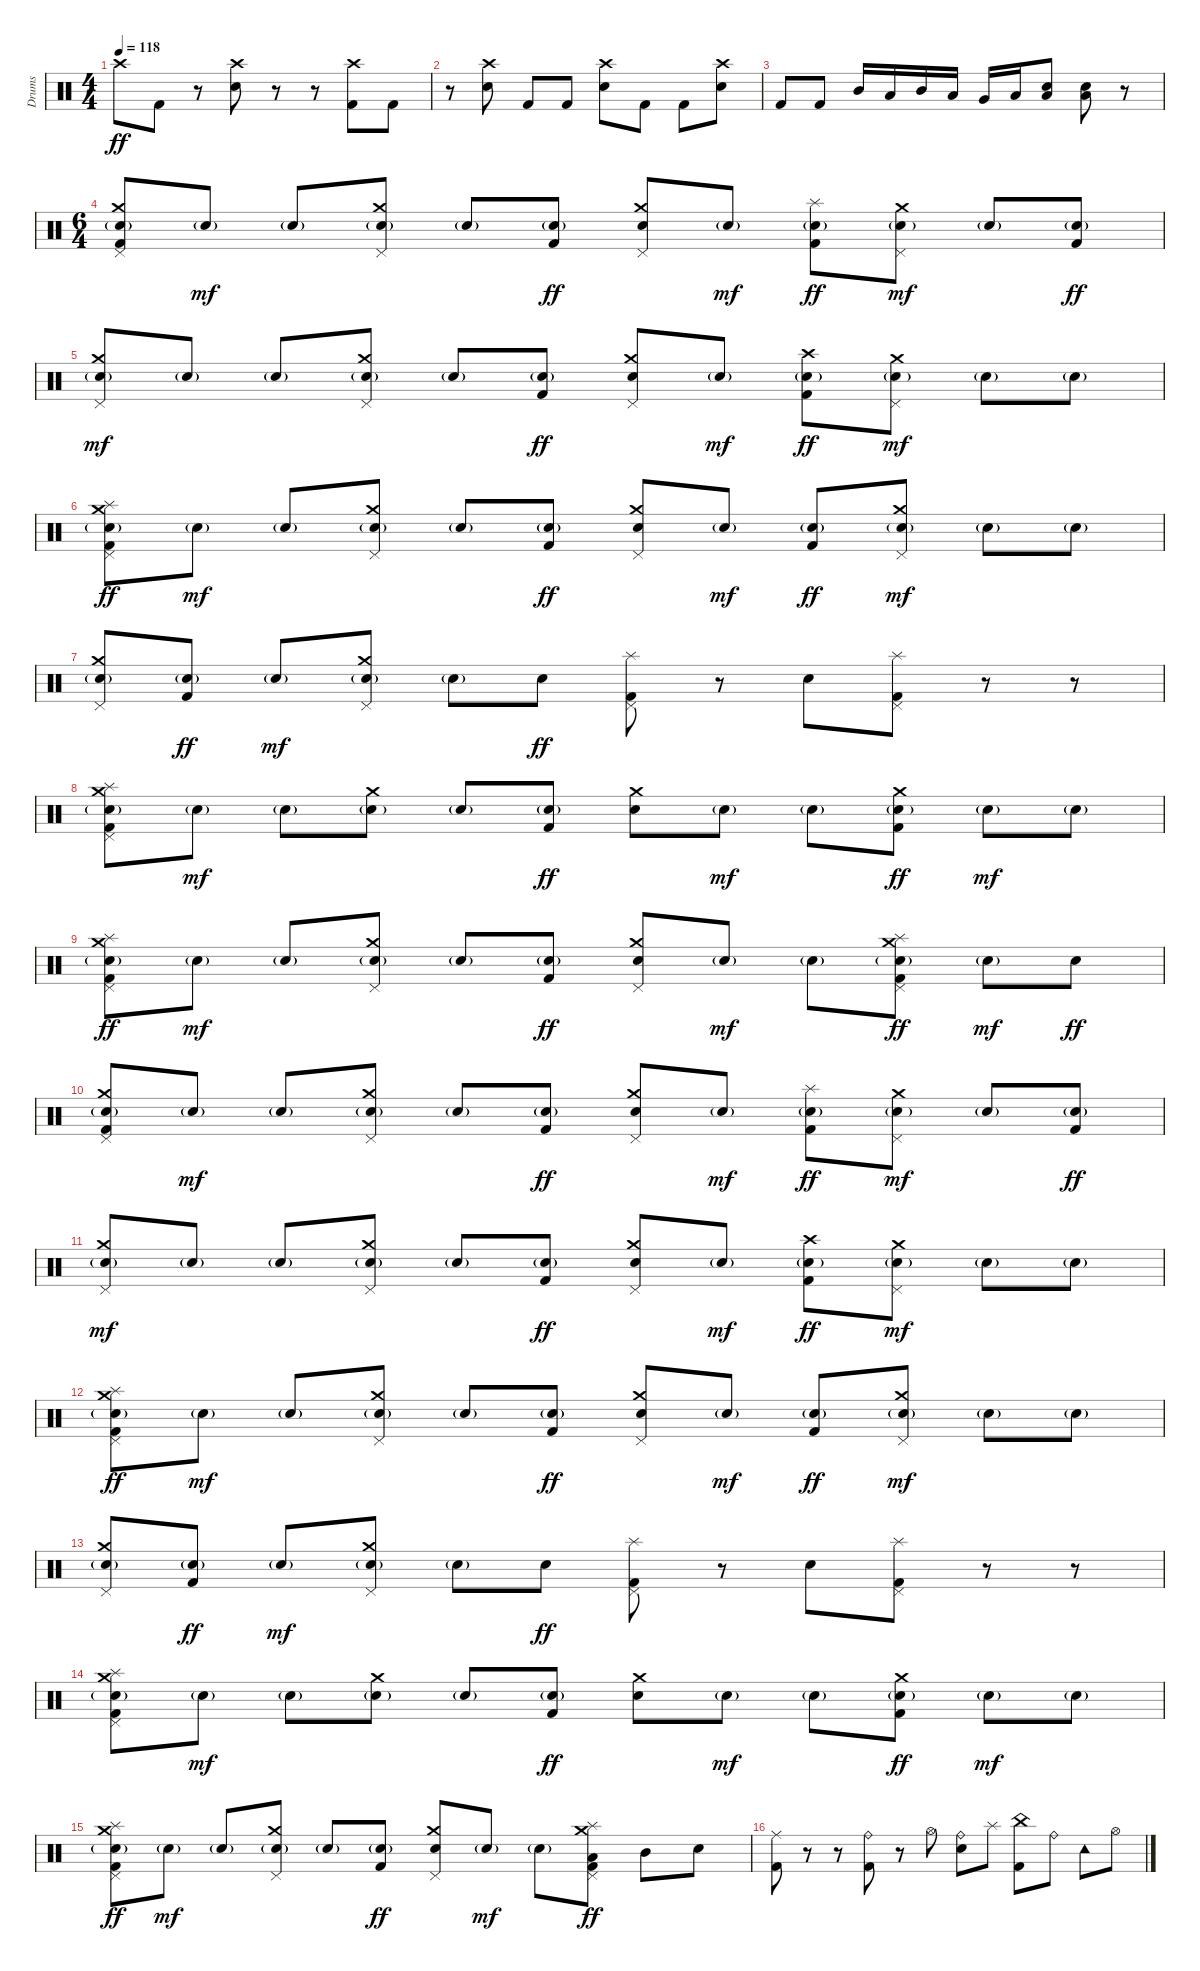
\track ("Drums" "Drums") {instrument percussion}
\staff {score}
\articulation defaults
\ts (4 4)
\tempo 118
\clef neutral
\ks c "Crash high (hit)".8{dy ff} "Kick (hit) 2".8
r.8 ("Crash high (hit)" "Electric Snare (hit)").8 r.8 r.8 ("Crash high (hit)" "Kick (hit) 2").8 "Kick (hit) 2".8 |
r.8 ("Crash high (hit)" "Electric Snare (hit)").8 "Kick (hit) 2".8 "Kick (hit) 2".8 ("Crash high (hit)" "Electric Snare (hit)").8 "Kick (hit) 2".8 "Kick (hit) 2".8 ("Crash high (hit)" "Electric Snare (hit)").8 |
"Kick (hit) 2".8 "Kick (hit) 2".8 "Mid Tom (hit)".16 "Low Tom (hit)".16 "Mid Tom (hit)".16 "Low Tom (hit)".16 "Very Low Tom (hit)".16 "Low Floor Tom (hit)".16 ("Low Floor Tom (hit)" "Electric Snare (hit)").8 ("Low Floor Tom (hit)" "Electric Snare (hit)").8 r.8 |
\ts (6 4)
("Crash medium (hit)" "Pedal Hi-Hat (hit)" "Electric Snare (hit)"{g} "Kick (hit) 2").8 "Electric Snare (hit)"{g}.8{dy mf} "Electric Snare (hit)"{g}.8 ("Crash medium (hit)" "Pedal Hi-Hat (hit)" "Electric Snare (hit)"{g}).8 "Electric Snare (hit)"{g}.8 ("Electric Snare (hit)"{g} "Kick (hit) 2").8{dy ff} ("Crash medium (hit)" "Pedal Hi-Hat (hit)" "Electric Snare (hit)").8 "Electric Snare (hit)"{g}.8{dy mf} ("Splash (hit)" "Electric Snare (hit)"{g} "Kick (hit) 2").8{dy ff} ("Crash medium (hit)" "Pedal Hi-Hat (hit)" "Electric Snare (hit)"{g}).8{dy mf} "Electric Snare (hit)"{g}.8 ("Electric Snare (hit)"{g} "Kick (hit) 2").8{dy ff} |
("Crash medium (hit)" "Pedal Hi-Hat (hit)" "Electric Snare (hit)"{g}).8{dy mf} "Electric Snare (hit)"{g}.8 "Electric Snare (hit)"{g}.8 ("Crash medium (hit)" "Pedal Hi-Hat (hit)" "Electric Snare (hit)"{g}).8 "Electric Snare (hit)"{g}.8 ("Electric Snare (hit)"{g} "Kick (hit) 2").8{dy ff} ("Crash medium (hit)" "Pedal Hi-Hat (hit)" "Electric Snare (hit)").8 "Electric Snare (hit)"{g}.8{dy mf} ("Crash high (hit)" "Electric Snare (hit)"{g} "Kick (hit) 2").8{dy ff} ("Crash medium (hit)" "Pedal Hi-Hat (hit)" "Electric Snare (hit)"{g}).8{dy mf} "Electric Snare (hit)"{g}.8 "Electric Snare (hit)"{g}.8 |
("Crash medium (hit)" "Splash (hit)" "Pedal Hi-Hat (hit)" "Electric Snare (hit)"{g} "Kick (hit) 2").8{dy ff} "Electric Snare (hit)"{g}.8{dy mf} "Electric Snare (hit)"{g}.8 ("Crash medium (hit)" "Pedal Hi-Hat (hit)" "Electric Snare (hit)"{g}).8 "Electric Snare (hit)"{g}.8 ("Electric Snare (hit)"{g} "Kick (hit) 2").8{dy ff} ("Crash medium (hit)" "Pedal Hi-Hat (hit)" "Electric Snare (hit)").8 "Electric Snare (hit)"{g}.8{dy mf} ("Electric Snare (hit)"{g} "Kick (hit) 2").8{dy ff} ("Crash medium (hit)" "Pedal Hi-Hat (hit)" "Electric Snare (hit)"{g}).8{dy mf} "Electric Snare (hit)"{g}.8 "Electric Snare (hit)"{g}.8 |
("Crash medium (hit)" "Pedal Hi-Hat (hit)" "Electric Snare (hit)"{g}).8 ("Electric Snare (hit)"{g} "Kick (hit) 2").8{dy ff} "Electric Snare (hit)"{g}.8{dy mf} ("Crash medium (hit)" "Pedal Hi-Hat (hit)" "Electric Snare (hit)"{g}).8 "Electric Snare (hit)"{g}.8 "Electric Snare (hit)".8{dy ff} ("Splash (hit)" "Pedal Hi-Hat (hit)" "Kick (hit) 2").8 r.8 "Electric Snare (hit)".8 ("Splash (hit)" "Pedal Hi-Hat (hit)" "Kick (hit) 2").8 r.8 r.8 |
("Crash medium (hit)" "Splash (hit)" "Pedal Hi-Hat (hit)" "Electric Snare (hit)"{g} "Kick (hit) 2").8 "Electric Snare (hit)"{g}.8{dy mf} "Electric Snare (hit)"{g}.8 ("Crash medium (hit)" "Electric Snare (hit)"{g}).8 "Electric Snare (hit)"{g}.8 ("Electric Snare (hit)"{g} "Kick (hit) 2").8{dy ff} ("Crash medium (hit)" "Electric Snare (hit)").8 "Electric Snare (hit)"{g}.8{dy mf} "Electric Snare (hit)"{g}.8 ("Crash medium (hit)" "Electric Snare (hit)"{g} "Kick (hit) 2").8{dy ff} "Electric Snare (hit)"{g}.8{dy mf} "Electric Snare (hit)"{g}.8 |
("Crash medium (hit)" "Splash (hit)" "Pedal Hi-Hat (hit)" "Electric Snare (hit)"{g} "Kick (hit) 2").8{dy ff} "Electric Snare (hit)"{g}.8{dy mf} "Electric Snare (hit)"{g}.8 ("Crash medium (hit)" "Pedal Hi-Hat (hit)" "Electric Snare (hit)"{g}).8 "Electric Snare (hit)"{g}.8 ("Electric Snare (hit)"{g} "Kick (hit) 2").8{dy ff} ("Crash medium (hit)" "Pedal Hi-Hat (hit)" "Electric Snare (hit)").8 "Electric Snare (hit)"{g}.8{dy mf} "Electric Snare (hit)"{g}.8 ("Crash medium (hit)" "Splash (hit)" "Pedal Hi-Hat (hit)" "Electric Snare (hit)"{g} "Kick (hit) 2").8{dy ff} "Electric Snare (hit)"{g}.8{dy mf} "Electric Snare (hit)".8{dy ff} |
("Crash medium (hit)" "Pedal Hi-Hat (hit)" "Electric Snare (hit)"{g} "Kick (hit) 2").8 "Electric Snare (hit)"{g}.8{dy mf} "Electric Snare (hit)"{g}.8 ("Crash medium (hit)" "Pedal Hi-Hat (hit)" "Electric Snare (hit)"{g}).8 "Electric Snare (hit)"{g}.8 ("Electric Snare (hit)"{g} "Kick (hit) 2").8{dy ff} ("Crash medium (hit)" "Pedal Hi-Hat (hit)" "Electric Snare (hit)").8 "Electric Snare (hit)"{g}.8{dy mf} ("Splash (hit)" "Electric Snare (hit)"{g} "Kick (hit) 2").8{dy ff} ("Crash medium (hit)" "Pedal Hi-Hat (hit)" "Electric Snare (hit)"{g}).8{dy mf} "Electric Snare (hit)"{g}.8 ("Electric Snare (hit)"{g} "Kick (hit) 2").8{dy ff} |
("Crash medium (hit)" "Pedal Hi-Hat (hit)" "Electric Snare (hit)"{g}).8{dy mf} "Electric Snare (hit)"{g}.8 "Electric Snare (hit)"{g}.8 ("Crash medium (hit)" "Pedal Hi-Hat (hit)" "Electric Snare (hit)"{g}).8 "Electric Snare (hit)"{g}.8 ("Electric Snare (hit)"{g} "Kick (hit) 2").8{dy ff} ("Crash medium (hit)" "Pedal Hi-Hat (hit)" "Electric Snare (hit)").8 "Electric Snare (hit)"{g}.8{dy mf} ("Crash high (hit)" "Electric Snare (hit)"{g} "Kick (hit) 2").8{dy ff} ("Crash medium (hit)" "Pedal Hi-Hat (hit)" "Electric Snare (hit)"{g}).8{dy mf} "Electric Snare (hit)"{g}.8 "Electric Snare (hit)"{g}.8 |
("Crash medium (hit)" "Splash (hit)" "Pedal Hi-Hat (hit)" "Electric Snare (hit)"{g} "Kick (hit) 2").8{dy ff} "Electric Snare (hit)"{g}.8{dy mf} "Electric Snare (hit)"{g}.8 ("Crash medium (hit)" "Pedal Hi-Hat (hit)" "Electric Snare (hit)"{g}).8 "Electric Snare (hit)"{g}.8 ("Electric Snare (hit)"{g} "Kick (hit) 2").8{dy ff} ("Crash medium (hit)" "Pedal Hi-Hat (hit)" "Electric Snare (hit)").8 "Electric Snare (hit)"{g}.8{dy mf} ("Electric Snare (hit)"{g} "Kick (hit) 2").8{dy ff} ("Crash medium (hit)" "Pedal Hi-Hat (hit)" "Electric Snare (hit)"{g}).8{dy mf} "Electric Snare (hit)"{g}.8 "Electric Snare (hit)"{g}.8 |
("Crash medium (hit)" "Pedal Hi-Hat (hit)" "Electric Snare (hit)"{g}).8 ("Electric Snare (hit)"{g} "Kick (hit) 2").8{dy ff} "Electric Snare (hit)"{g}.8{dy mf} ("Crash medium (hit)" "Pedal Hi-Hat (hit)" "Electric Snare (hit)"{g}).8 "Electric Snare (hit)"{g}.8 "Electric Snare (hit)".8{dy ff} ("Splash (hit)" "Pedal Hi-Hat (hit)" "Kick (hit) 2").8 r.8 "Electric Snare (hit)".8 ("Splash (hit)" "Pedal Hi-Hat (hit)" "Kick (hit) 2").8 r.8 r.8 |
("Crash medium (hit)" "Splash (hit)" "Pedal Hi-Hat (hit)" "Electric Snare (hit)"{g} "Kick (hit) 2").8 "Electric Snare (hit)"{g}.8{dy mf} "Electric Snare (hit)"{g}.8 ("Crash medium (hit)" "Electric Snare (hit)"{g}).8 "Electric Snare (hit)"{g}.8 ("Electric Snare (hit)"{g} "Kick (hit) 2").8{dy ff} ("Crash medium (hit)" "Electric Snare (hit)").8 "Electric Snare (hit)"{g}.8{dy mf} "Electric Snare (hit)"{g}.8 ("Crash medium (hit)" "Electric Snare (hit)"{g} "Kick (hit) 2").8{dy ff} "Electric Snare (hit)"{g}.8{dy mf} "Electric Snare (hit)"{g}.8 |
("Crash medium (hit)" "Splash (hit)" "Pedal Hi-Hat (hit)" "Electric Snare (hit)"{g} "Kick (hit) 2").8{dy ff} "Electric Snare (hit)"{g}.8{dy mf} "Electric Snare (hit)"{g}.8 ("Crash medium (hit)" "Pedal Hi-Hat (hit)" "Electric Snare (hit)"{g}).8 "Electric Snare (hit)"{g}.8 ("Electric Snare (hit)"{g} "Kick (hit) 2").8{dy ff} ("Crash medium (hit)" "Pedal Hi-Hat (hit)" "Electric Snare (hit)").8 "Electric Snare (hit)"{g}.8{dy mf} "Electric Snare (hit)"{g}.8 ("Crash medium (hit)" "Splash (hit)" "Pedal Hi-Hat (hit)" "Low Tom (hit)" "Kick (hit) 2").8{dy ff} "Mid Tom (hit)".8 "Electric Snare (hit)".8 |
\section ("" "")
("Ride (middle)" "Kick (hit) 2").8 r.8 r.8 ("Ride (bell)" "Kick (hit) 2").8 r.8 "Hi-Hat (open)".8 ("Ride (bell)" "Electric Snare (hit)").8 "Splash (hit)".8 ("China (hit)" "Kick (hit) 2").8 "Ride (bell)".8 "Tambourine (hit)".8 "Hi-Hat (open)".8
